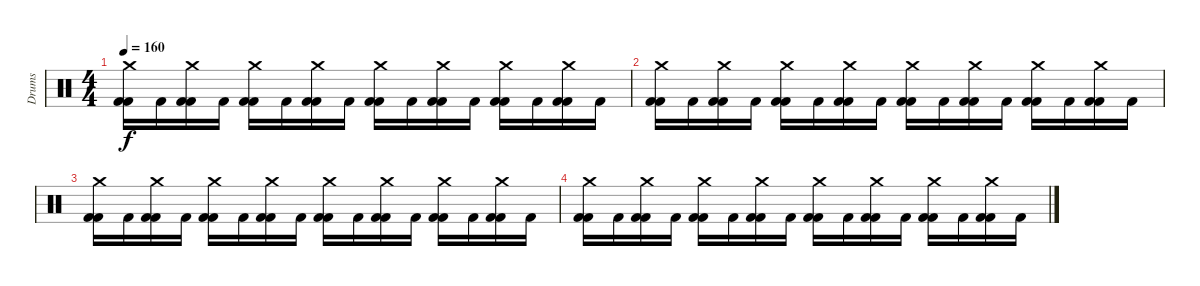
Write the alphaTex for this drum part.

\track ("Drums" "Drums") {instrument percussion}
\staff {score}
\articulation defaults
\ts (4 4)
\tempo 160
\clef neutral
\ks c
("Crash medium (hit)" "Kick (hit) 2" "Kick (hit) 2").16{dy f} "Kick (hit) 2".16 ("Kick (hit) 2" "Kick (hit) 2" "Crash medium (hit)").16 "Kick (hit) 2".16 ("Crash medium (hit)" "Kick (hit) 2" "Kick (hit) 2").16 "Kick (hit) 2".16 ("Kick (hit) 2" "Kick (hit) 2" "Crash medium (hit)").16 "Kick (hit) 2".16 ("Crash medium (hit)" "Kick (hit) 2" "Kick (hit) 2").16 "Kick (hit) 2".16 ("Kick (hit) 2" "Kick (hit) 2" "Crash medium (hit)").16 "Kick (hit) 2".16 ("Crash medium (hit)" "Kick (hit) 2" "Kick (hit) 2").16 "Kick (hit) 2".16 ("Kick (hit) 2" "Kick (hit) 2" "Crash medium (hit)").16 "Kick (hit) 2".16 |
("Crash medium (hit)" "Kick (hit) 2" "Kick (hit) 2").16 "Kick (hit) 2".16 ("Kick (hit) 2" "Kick (hit) 2" "Crash medium (hit)").16 "Kick (hit) 2".16 ("Crash medium (hit)" "Kick (hit) 2" "Kick (hit) 2").16 "Kick (hit) 2".16 ("Kick (hit) 2" "Kick (hit) 2" "Crash medium (hit)").16 "Kick (hit) 2".16 ("Crash medium (hit)" "Kick (hit) 2" "Kick (hit) 2").16 "Kick (hit) 2".16 ("Kick (hit) 2" "Kick (hit) 2" "Crash medium (hit)").16 "Kick (hit) 2".16 ("Crash medium (hit)" "Kick (hit) 2" "Kick (hit) 2").16 "Kick (hit) 2".16 ("Kick (hit) 2" "Kick (hit) 2" "Crash medium (hit)").16 "Kick (hit) 2".16 |
("Crash medium (hit)" "Kick (hit) 2" "Kick (hit) 2").16 "Kick (hit) 2".16 ("Kick (hit) 2" "Kick (hit) 2" "Crash medium (hit)").16 "Kick (hit) 2".16 ("Crash medium (hit)" "Kick (hit) 2" "Kick (hit) 2").16 "Kick (hit) 2".16 ("Kick (hit) 2" "Kick (hit) 2" "Crash medium (hit)").16 "Kick (hit) 2".16 ("Crash medium (hit)" "Kick (hit) 2" "Kick (hit) 2").16 "Kick (hit) 2".16 ("Kick (hit) 2" "Kick (hit) 2" "Crash medium (hit)").16 "Kick (hit) 2".16 ("Crash medium (hit)" "Kick (hit) 2" "Kick (hit) 2").16 "Kick (hit) 2".16 ("Kick (hit) 2" "Kick (hit) 2" "Crash medium (hit)").16 "Kick (hit) 2".16 |
("Crash medium (hit)" "Kick (hit) 2" "Kick (hit) 2").16 "Kick (hit) 2".16 ("Kick (hit) 2" "Kick (hit) 2" "Crash medium (hit)").16 "Kick (hit) 2".16 ("Crash medium (hit)" "Kick (hit) 2" "Kick (hit) 2").16 "Kick (hit) 2".16 ("Kick (hit) 2" "Kick (hit) 2" "Crash medium (hit)").16 "Kick (hit) 2".16 ("Crash medium (hit)" "Kick (hit) 2" "Kick (hit) 2").16 "Kick (hit) 2".16 ("Kick (hit) 2" "Kick (hit) 2" "Crash medium (hit)").16 "Kick (hit) 2".16 ("Crash medium (hit)" "Kick (hit) 2" "Kick (hit) 2").16 "Kick (hit) 2".16 ("Kick (hit) 2" "Kick (hit) 2" "Crash medium (hit)").16 "Kick (hit) 2".16
